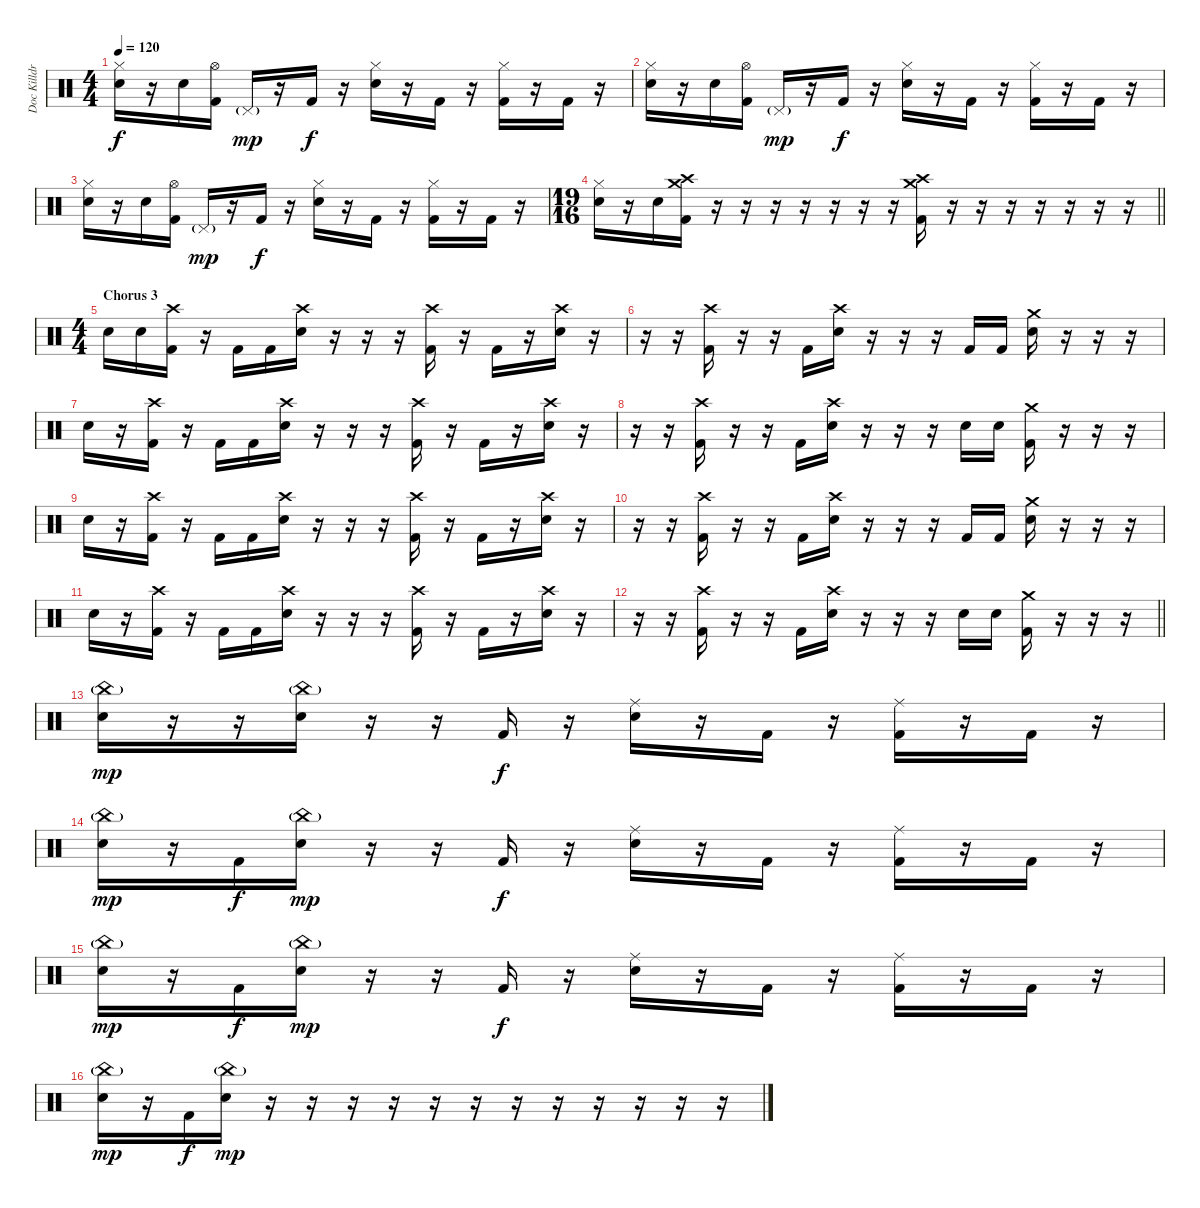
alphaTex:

\track ("Doc Killdrums (What else?)" "Doc Killdr") {instrument percussion}
\staff {score}
\articulation defaults
\ts (4 4)
\tempo 120
\clef neutral
\ks c
("Snare (hit) 2" "Hi-Hat (closed)").16{dy f} r.16 "Snare (hit) 2".16 ("Kick (hit) 2" "Hi-Hat (open)").16 "Pedal Hi-Hat (hit)"{g}.16{dy mp} r.16 "Kick (hit) 2".16{dy f} r.16 ("Snare (hit) 2" "Hi-Hat (closed)").16 r.16 "Kick (hit) 2".16 r.16 ("Kick (hit) 2" "Hi-Hat (closed)").16 r.16 "Kick (hit) 2".16 r.16 |
("Snare (hit) 2" "Hi-Hat (closed)").16 r.16 "Snare (hit) 2".16 ("Kick (hit) 2" "Hi-Hat (open)").16 "Pedal Hi-Hat (hit)"{g}.16{dy mp} r.16 "Kick (hit) 2".16{dy f} r.16 ("Snare (hit) 2" "Hi-Hat (closed)").16 r.16 "Kick (hit) 2".16 r.16 ("Kick (hit) 2" "Hi-Hat (closed)").16 r.16 "Kick (hit) 2".16 r.16 |
("Snare (hit) 2" "Hi-Hat (closed)").16 r.16 "Snare (hit) 2".16 ("Kick (hit) 2" "Hi-Hat (open)").16 "Pedal Hi-Hat (hit)"{g}.16{dy mp} r.16 "Kick (hit) 2".16{dy f} r.16 ("Snare (hit) 2" "Hi-Hat (closed)").16 r.16 "Kick (hit) 2".16 r.16 ("Kick (hit) 2" "Hi-Hat (closed)").16 r.16 "Kick (hit) 2".16 r.16 |
\ts (19 16)
\barLineRight lightlight
("Snare (hit) 2" "Hi-Hat (closed)").16 r.16 "Snare (hit) 2".16 ("Kick (hit) 2" "Crash medium (hit)" "Crash high (hit)").16 r.16 r.16 r.16 r.16 r.16 r.16 r.16 ("Kick (hit) 2" "Crash medium (hit)" "Crash high (hit)").16 r.16 r.16 r.16 r.16 r.16 r.16 r.16 |
\ts (4 4)
\section ("" "Chorus 3")
"Snare (hit) 2".16 "Snare (hit) 2".16 ("Kick (hit) 2" "Crash high (hit)").16 r.16 "Kick (hit) 2".16 "Kick (hit) 2".16 ("Snare (hit) 2" "Crash high (hit)").16 r.16 r.16 r.16 ("Kick (hit) 2" "Crash high (hit)").16 r.16 "Kick (hit) 2".16 r.16 ("Snare (hit) 2" "Crash high (hit)").16 r.16 |
r.16 r.16 ("Kick (hit) 2" "Crash high (hit)").16 r.16 r.16 "Kick (hit) 2".16 ("Snare (hit) 2" "Crash high (hit)").16 r.16 r.16 r.16 "Kick (hit) 2".16 "Kick (hit) 2".16 ("Snare (hit) 2" "Crash medium (hit)").16 r.16 r.16 r.16 |
"Snare (hit) 2".16 r.16 ("Kick (hit) 2" "Crash high (hit)").16 r.16 "Kick (hit) 2".16 "Kick (hit) 2".16 ("Snare (hit) 2" "Crash high (hit)").16 r.16 r.16 r.16 ("Kick (hit) 2" "Crash high (hit)").16 r.16 "Kick (hit) 2".16 r.16 ("Snare (hit) 2" "Crash high (hit)").16 r.16 |
r.16 r.16 ("Kick (hit) 2" "Crash high (hit)").16 r.16 r.16 "Kick (hit) 2".16 ("Snare (hit) 2" "Crash high (hit)").16 r.16 r.16 r.16 "Snare (hit) 2".16 "Snare (hit) 2".16 ("Kick (hit) 2" "Crash medium (hit)").16 r.16 r.16 r.16 |
"Snare (hit) 2".16 r.16 ("Kick (hit) 2" "Crash high (hit)").16 r.16 "Kick (hit) 2".16 "Kick (hit) 2".16 ("Snare (hit) 2" "Crash high (hit)").16 r.16 r.16 r.16 ("Kick (hit) 2" "Crash high (hit)").16 r.16 "Kick (hit) 2".16 r.16 ("Snare (hit) 2" "Crash high (hit)").16 r.16 |
r.16 r.16 ("Kick (hit) 2" "Crash high (hit)").16 r.16 r.16 "Kick (hit) 2".16 ("Snare (hit) 2" "Crash high (hit)").16 r.16 r.16 r.16 "Kick (hit) 2".16 "Kick (hit) 2".16 ("Snare (hit) 2" "Crash medium (hit)").16 r.16 r.16 r.16 |
"Snare (hit) 2".16 r.16 ("Kick (hit) 2" "Crash high (hit)").16 r.16 "Kick (hit) 2".16 "Kick (hit) 2".16 ("Snare (hit) 2" "Crash high (hit)").16 r.16 r.16 r.16 ("Kick (hit) 2" "Crash high (hit)").16 r.16 "Kick (hit) 2".16 r.16 ("Snare (hit) 2" "Crash high (hit)").16 r.16 |
\barLineRight lightlight
r.16 r.16 ("Kick (hit) 2" "Crash high (hit)").16 r.16 r.16 "Kick (hit) 2".16 ("Snare (hit) 2" "Crash high (hit)").16 r.16 r.16 r.16 "Snare (hit) 2".16 "Snare (hit) 2".16 ("Kick (hit) 2" "Crash medium (hit)").16 r.16 r.16 r.16 |
("Snare (hit) 2" "China (hit)"{g}).16{dy mp} r.16 r.16 ("Snare (hit) 2" "China (hit)"{g}).16 r.16 r.16 "Kick (hit) 2".16{dy f} r.16 ("Snare (hit) 2" "Ride (middle)").16 r.16 "Kick (hit) 2".16 r.16 ("Kick (hit) 2" "Ride (middle)").16 r.16 "Kick (hit) 2".16 r.16 |
("Snare (hit) 2" "China (hit)"{g}).16{dy mp} r.16 "Kick (hit) 2".16{dy f} ("Snare (hit) 2" "China (hit)"{g}).16{dy mp} r.16 r.16 "Kick (hit) 2".16{dy f} r.16 ("Snare (hit) 2" "Ride (middle)").16 r.16 "Kick (hit) 2".16 r.16 ("Kick (hit) 2" "Ride (middle)").16 r.16 "Kick (hit) 2".16 r.16 |
("Snare (hit) 2" "China (hit)"{g}).16{dy mp} r.16 "Kick (hit) 2".16{dy f} ("Snare (hit) 2" "China (hit)"{g}).16{dy mp} r.16 r.16 "Kick (hit) 2".16{dy f} r.16 ("Snare (hit) 2" "Ride (middle)").16 r.16 "Kick (hit) 2".16 r.16 ("Kick (hit) 2" "Ride (middle)").16 r.16 "Kick (hit) 2".16 r.16 |
("Snare (hit) 2" "China (hit)"{g}).16{dy mp} r.16 "Kick (hit) 2".16{dy f} ("Snare (hit) 2" "China (hit)"{g}).16{dy mp} r.16 r.16 r.16 r.16 r.16 r.16 r.16 r.16 r.16 r.16 r.16 r.16
